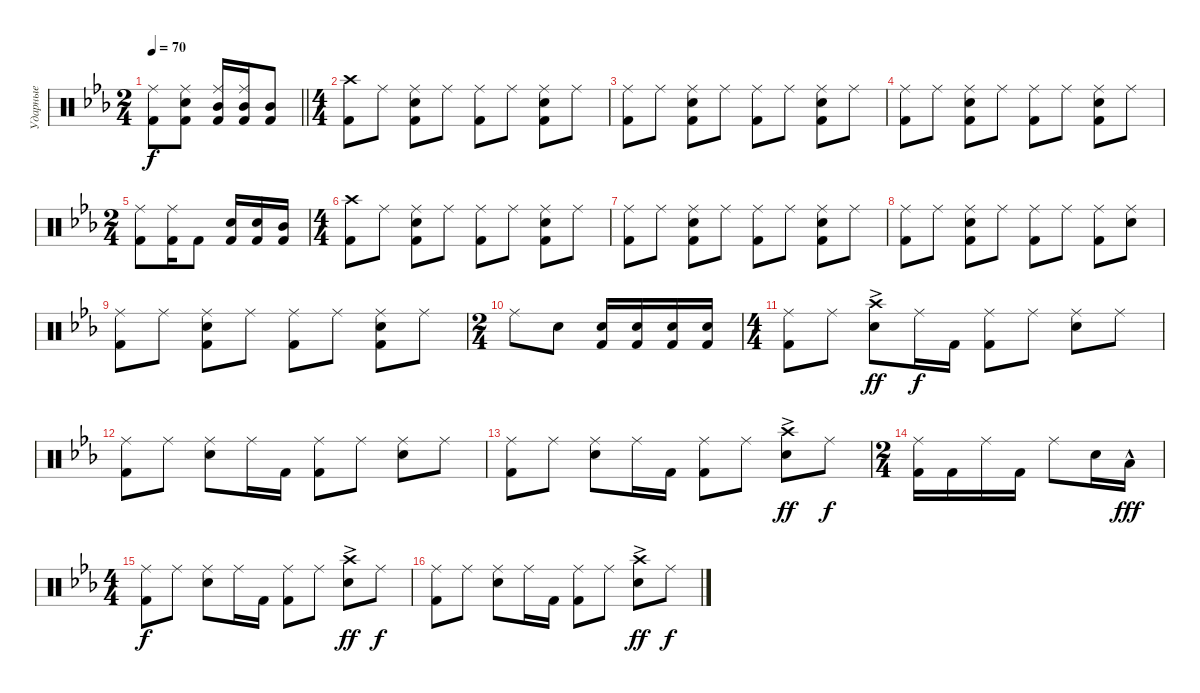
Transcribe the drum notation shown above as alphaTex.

\track ("Ударные" "Ударные") {instrument percussion}
\staff {score}
\articulation defaults
\ts (2 4)
\tempo 70
\clef neutral
\barLineRight lightlight
\ks eb
("Kick (hit) 2" "Ride (middle)").8{dy f} ("Kick (hit) 2" "Snare (hit) 2" "Ride (middle)").8 ("Kick (hit) 2" "Mid Tom (hit)" "Ride (middle)").16 ("Kick (hit) 2" "Mid Tom (hit)" "Ride (middle)").16 ("Kick (hit) 2" "Mid Tom (hit)").8 |
\ts (4 4)
("Kick (hit) 2" "Crash high (hit)").8 "Ride (middle)".8 ("Kick (hit) 2" "Snare (hit) 2" "Ride (middle)").8 "Ride (middle)".8 ("Kick (hit) 2" "Ride (middle)").8 "Ride (middle)".8 ("Kick (hit) 2" "Snare (hit) 2" "Ride (middle)").8 "Ride (middle)".8 |
("Kick (hit) 2" "Ride (middle)").8 "Ride (middle)".8 ("Kick (hit) 2" "Snare (hit) 2" "Ride (middle)").8 "Ride (middle)".8 ("Kick (hit) 2" "Ride (middle)").8 "Ride (middle)".8 ("Kick (hit) 2" "Snare (hit) 2" "Ride (middle)").8 "Ride (middle)".8 |
("Kick (hit) 2" "Ride (middle)").8 "Ride (middle)".8 ("Kick (hit) 2" "Snare (hit) 2" "Ride (middle)").8 "Ride (middle)".8 ("Kick (hit) 2" "Ride (middle)").8 "Ride (middle)".8 ("Kick (hit) 2" "Snare (hit) 2" "Ride (middle)").8 "Ride (middle)".8 |
\ts (2 4)
("Kick (hit) 2" "Ride (middle)").8 ("Kick (hit) 2" "Ride (middle)").16 "Kick (hit) 2".8 ("Kick (hit) 2" "Snare (hit) 2").16 ("Kick (hit) 2" "Snare (hit) 2").16 ("Kick (hit) 2" "Mid Tom (hit)").16 |
\ts (4 4)
("Kick (hit) 2" "Crash high (hit)").8 "Ride (middle)".8 ("Kick (hit) 2" "Snare (hit) 2" "Ride (middle)").8 "Ride (middle)".8 ("Kick (hit) 2" "Ride (middle)").8 "Ride (middle)".8 ("Kick (hit) 2" "Snare (hit) 2" "Ride (middle)").8 "Ride (middle)".8 |
("Kick (hit) 2" "Ride (middle)").8 "Ride (middle)".8 ("Kick (hit) 2" "Snare (hit) 2" "Ride (middle)").8 "Ride (middle)".8 ("Kick (hit) 2" "Ride (middle)").8 "Ride (middle)".8 ("Kick (hit) 2" "Snare (hit) 2" "Ride (middle)").8 "Ride (middle)".8 |
("Kick (hit) 2" "Ride (middle)").8 "Ride (middle)".8 ("Kick (hit) 2" "Snare (hit) 2" "Ride (middle)").8 "Ride (middle)".8 ("Kick (hit) 2" "Ride (middle)").8 "Ride (middle)".8 ("Kick (hit) 2" "Ride (middle)").8 ("Snare (hit) 2" "Ride (middle)").8 |
("Kick (hit) 2" "Ride (middle)").8 "Ride (middle)".8 ("Kick (hit) 2" "Snare (hit) 2" "Ride (middle)").8 "Ride (middle)".8 ("Kick (hit) 2" "Ride (middle)").8 "Ride (middle)".8 ("Kick (hit) 2" "Snare (hit) 2" "Ride (middle)").8 "Ride (middle)".8 |
\ts (2 4)
"Ride (middle)".8 "Snare (hit) 2".8 ("Kick (hit) 2" "Snare (hit) 2").16 ("Kick (hit) 2" "Snare (hit) 2").16 ("Kick (hit) 2" "Snare (hit) 2").16 ("Kick (hit) 2" "Snare (hit) 2").16 |
\ts (4 4)
("Kick (hit) 2" "Ride (middle)").8 "Ride (middle)".8 ("Snare (hit) 2" "Crash high (hit)"{ac}).8{dy ff} "Ride (middle)".16{dy f} "Kick (hit) 2".16 ("Kick (hit) 2" "Ride (middle)").8 "Ride (middle)".8 ("Snare (hit) 2" "Ride (middle)").8 "Ride (middle)".8 |
("Kick (hit) 2" "Ride (middle)").8 "Ride (middle)".8 ("Snare (hit) 2" "Ride (middle)").8 "Ride (middle)".16 "Kick (hit) 2".16 ("Kick (hit) 2" "Ride (middle)").8 "Ride (middle)".8 ("Snare (hit) 2" "Ride (middle)").8 "Ride (middle)".8 |
("Kick (hit) 2" "Ride (middle)").8 "Ride (middle)".8 ("Snare (hit) 2" "Ride (middle)").8 "Ride (middle)".16 "Kick (hit) 2".16 ("Kick (hit) 2" "Ride (middle)").8 "Ride (middle)".8 ("Snare (hit) 2" "Crash high (hit)"{ac}).8{dy ff} "Ride (middle)".8{dy f} |
\ts (2 4)
("Kick (hit) 2" "Ride (middle)").16 "Kick (hit) 2".16 "Ride (middle)".16 "Kick (hit) 2".16 "Ride (middle)".8 "Snare (hit) 2".16 "Low Tom (hit)"{hac}.16{dy fff} |
\ts (4 4)
("Kick (hit) 2" "Ride (middle)").8{dy f} "Ride (middle)".8 ("Snare (hit) 2" "Ride (middle)").8 "Ride (middle)".16 "Kick (hit) 2".16 ("Kick (hit) 2" "Ride (middle)").8 "Ride (middle)".8 ("Snare (hit) 2" "Crash high (hit)"{ac}).8{dy ff} "Ride (middle)".8{dy f} |
("Kick (hit) 2" "Ride (middle)").8 "Ride (middle)".8 ("Snare (hit) 2" "Ride (middle)").8 "Ride (middle)".16 "Kick (hit) 2".16 ("Kick (hit) 2" "Ride (middle)").8 "Ride (middle)".8 ("Snare (hit) 2" "Crash high (hit)"{ac}).8{dy ff} "Ride (middle)".8{dy f}
